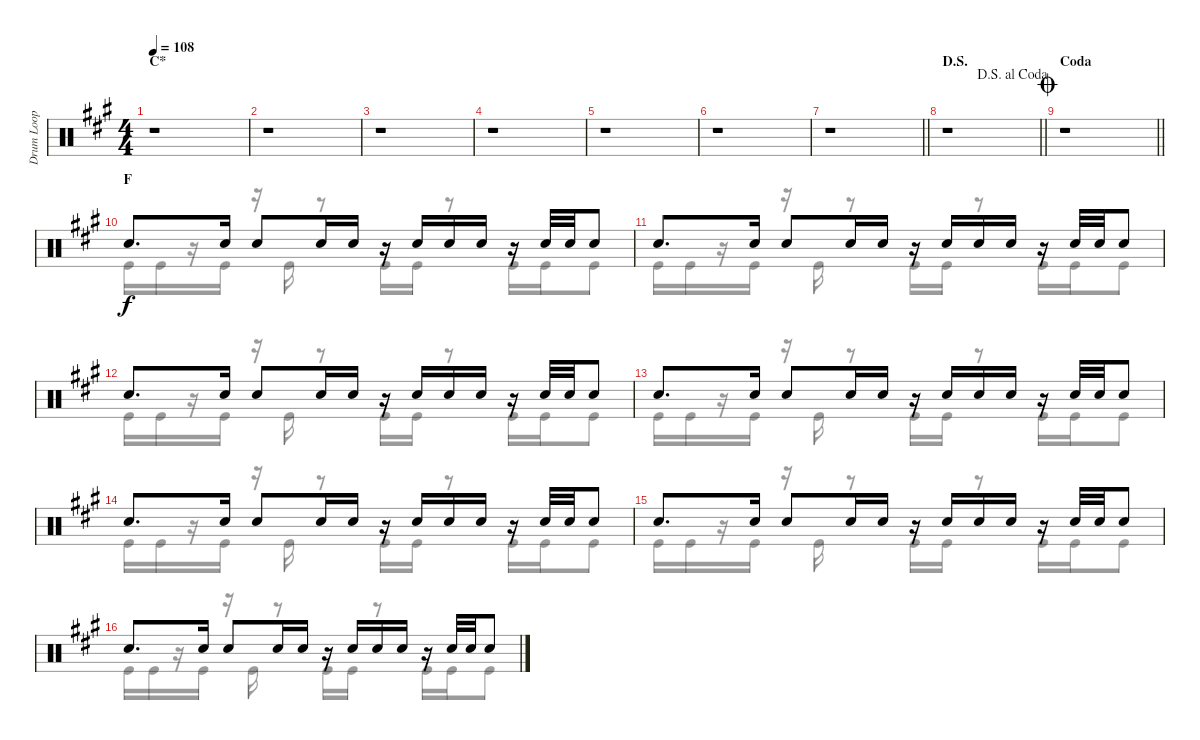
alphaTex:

\track ("Drum Loop" "Drum Loop") {instrument percussion}
\staff {score}
\articulation defaults
\voice
\ts (4 4)
\section ("" "C*")
\tempo 108
\clef neutral
\ks f#minor
r.1{dy f} |
r.1 |
r.1 |
r.1 |
r.1 |
r.1 |
\barLineRight lightlight
r.1 |
\section ("" "D.S.")
\jump dalsegnoalcoda
\barLineRight lightlight
r.1 |
\section ("" "Coda")
\jump coda
\barLineRight lightlight
r.1 |
\section ("" "F")
"Electric Snare (hit)".8{d} "Electric Snare (hit)".16 "Electric Snare (hit)".8 "Electric Snare (hit)".16 "Electric Snare (hit)".16 r.16 "Electric Snare (hit)".16 "Electric Snare (hit)".16 "Electric Snare (hit)".16 r.16 "Electric Snare (hit)".32 "Electric Snare (hit)".32 "Electric Snare (hit)".8 |
"Electric Snare (hit)".8{d} "Electric Snare (hit)".16 "Electric Snare (hit)".8 "Electric Snare (hit)".16 "Electric Snare (hit)".16 r.16 "Electric Snare (hit)".16 "Electric Snare (hit)".16 "Electric Snare (hit)".16 r.16 "Electric Snare (hit)".32 "Electric Snare (hit)".32 "Electric Snare (hit)".8 |
"Electric Snare (hit)".8{d} "Electric Snare (hit)".16 "Electric Snare (hit)".8 "Electric Snare (hit)".16 "Electric Snare (hit)".16 r.16 "Electric Snare (hit)".16 "Electric Snare (hit)".16 "Electric Snare (hit)".16 r.16 "Electric Snare (hit)".32 "Electric Snare (hit)".32 "Electric Snare (hit)".8 |
"Electric Snare (hit)".8{d} "Electric Snare (hit)".16 "Electric Snare (hit)".8 "Electric Snare (hit)".16 "Electric Snare (hit)".16 r.16 "Electric Snare (hit)".16 "Electric Snare (hit)".16 "Electric Snare (hit)".16 r.16 "Electric Snare (hit)".32 "Electric Snare (hit)".32 "Electric Snare (hit)".8 |
"Electric Snare (hit)".8{d} "Electric Snare (hit)".16 "Electric Snare (hit)".8 "Electric Snare (hit)".16 "Electric Snare (hit)".16 r.16 "Electric Snare (hit)".16 "Electric Snare (hit)".16 "Electric Snare (hit)".16 r.16 "Electric Snare (hit)".32 "Electric Snare (hit)".32 "Electric Snare (hit)".8 |
"Electric Snare (hit)".8{d} "Electric Snare (hit)".16 "Electric Snare (hit)".8 "Electric Snare (hit)".16 "Electric Snare (hit)".16 r.16 "Electric Snare (hit)".16 "Electric Snare (hit)".16 "Electric Snare (hit)".16 r.16 "Electric Snare (hit)".32 "Electric Snare (hit)".32 "Electric Snare (hit)".8 |
"Electric Snare (hit)".8{d} "Electric Snare (hit)".16 "Electric Snare (hit)".8 "Electric Snare (hit)".16 "Electric Snare (hit)".16 r.16 "Electric Snare (hit)".16 "Electric Snare (hit)".16 "Electric Snare (hit)".16 r.16 "Electric Snare (hit)".32 "Electric Snare (hit)".32 "Electric Snare (hit)".8
\voice
\clef neutral
\ottava regular
\simile none
\ks f#minor
r.1{dy f} |
r.1 |
r.1 |
r.1 |
r.1 |
r.1 |
\barLineRight lightlight
r.1 |
\barLineRight lightlight
r.1 |
\barLineRight lightlight
r.1 |
"Kick (hit)".16 "Kick (hit)".16 r.16 "Kick (hit)".16 r.16 "Kick (hit)".16 r.8 "Kick (hit)".16 "Kick (hit)".16 r.8 "Kick (hit)".16 "Kick (hit)".16 "Kick (hit)".8 |
"Kick (hit)".16 "Kick (hit)".16 r.16 "Kick (hit)".16 r.16 "Kick (hit)".16 r.8 "Kick (hit)".16 "Kick (hit)".16 r.8 "Kick (hit)".16 "Kick (hit)".16 "Kick (hit)".8 |
"Kick (hit)".16 "Kick (hit)".16 r.16 "Kick (hit)".16 r.16 "Kick (hit)".16 r.8 "Kick (hit)".16 "Kick (hit)".16 r.8 "Kick (hit)".16 "Kick (hit)".16 "Kick (hit)".8 |
"Kick (hit)".16 "Kick (hit)".16 r.16 "Kick (hit)".16 r.16 "Kick (hit)".16 r.8 "Kick (hit)".16 "Kick (hit)".16 r.8 "Kick (hit)".16 "Kick (hit)".16 "Kick (hit)".8 |
"Kick (hit)".16 "Kick (hit)".16 r.16 "Kick (hit)".16 r.16 "Kick (hit)".16 r.8 "Kick (hit)".16 "Kick (hit)".16 r.8 "Kick (hit)".16 "Kick (hit)".16 "Kick (hit)".8 |
"Kick (hit)".16 "Kick (hit)".16 r.16 "Kick (hit)".16 r.16 "Kick (hit)".16 r.8 "Kick (hit)".16 "Kick (hit)".16 r.8 "Kick (hit)".16 "Kick (hit)".16 "Kick (hit)".8 |
"Kick (hit)".16 "Kick (hit)".16 r.16 "Kick (hit)".16 r.16 "Kick (hit)".16 r.8 "Kick (hit)".16 "Kick (hit)".16 r.8 "Kick (hit)".16 "Kick (hit)".16 "Kick (hit)".8
